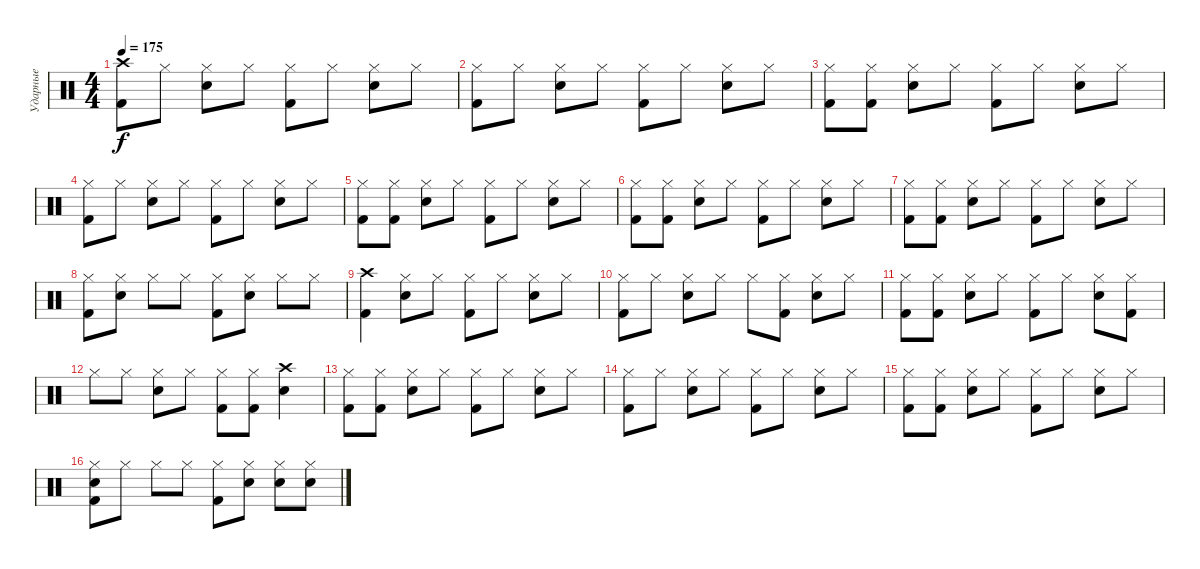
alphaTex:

\track ("Ударные" "Ударные") {instrument percussion}
\staff
\articulation defaults
\ts (4 4)
\tempo 175
\clef neutral
\ks c
("Kick (hit) 2" "Crash high (hit)").8{dy f} "Hi-Hat (closed)".8 ("Snare (hit) 2" "Hi-Hat (closed)").8 "Hi-Hat (closed)".8 ("Kick (hit) 2" "Hi-Hat (closed)").8 "Hi-Hat (closed)".8 ("Snare (hit) 2" "Hi-Hat (closed)").8 "Hi-Hat (closed)".8 |
("Kick (hit) 2" "Hi-Hat (closed)").8 "Hi-Hat (closed)".8 ("Snare (hit) 2" "Hi-Hat (closed)").8 "Hi-Hat (closed)".8 ("Kick (hit) 2" "Hi-Hat (closed)").8 "Hi-Hat (closed)".8 ("Snare (hit) 2" "Hi-Hat (closed)").8 "Hi-Hat (closed)".8 |
("Kick (hit) 2" "Hi-Hat (closed)").8 ("Kick (hit) 2" "Hi-Hat (closed)").8 ("Snare (hit) 2" "Hi-Hat (closed)").8 "Hi-Hat (closed)".8 ("Kick (hit) 2" "Hi-Hat (closed)").8 "Hi-Hat (closed)".8 ("Snare (hit) 2" "Hi-Hat (closed)").8 "Hi-Hat (closed)".8 |
("Kick (hit) 2" "Hi-Hat (closed)").8 "Hi-Hat (closed)".8 ("Snare (hit) 2" "Hi-Hat (closed)").8 "Hi-Hat (closed)".8 ("Kick (hit) 2" "Hi-Hat (closed)").8 "Hi-Hat (closed)".8 ("Snare (hit) 2" "Hi-Hat (closed)").8 "Hi-Hat (closed)".8 |
("Kick (hit) 2" "Hi-Hat (closed)").8 ("Kick (hit) 2" "Hi-Hat (closed)").8 ("Snare (hit) 2" "Hi-Hat (closed)").8 "Hi-Hat (closed)".8 ("Kick (hit) 2" "Hi-Hat (closed)").8 "Hi-Hat (closed)".8 ("Snare (hit) 2" "Hi-Hat (closed)").8 "Hi-Hat (closed)".8 |
("Kick (hit) 2" "Hi-Hat (closed)").8 ("Kick (hit) 2" "Hi-Hat (closed)").8 ("Snare (hit) 2" "Hi-Hat (closed)").8 "Hi-Hat (closed)".8 ("Kick (hit) 2" "Hi-Hat (closed)").8 "Hi-Hat (closed)".8 ("Snare (hit) 2" "Hi-Hat (closed)").8 "Hi-Hat (closed)".8 |
("Kick (hit) 2" "Hi-Hat (closed)").8 ("Kick (hit) 2" "Hi-Hat (closed)").8 ("Snare (hit) 2" "Hi-Hat (closed)").8 "Hi-Hat (closed)".8 ("Kick (hit) 2" "Hi-Hat (closed)").8 "Hi-Hat (closed)".8 ("Snare (hit) 2" "Hi-Hat (closed)").8 "Hi-Hat (closed)".8 |
("Kick (hit) 2" "Hi-Hat (closed)").8 ("Snare (hit) 2" "Hi-Hat (closed)").8 "Hi-Hat (closed)".8 "Hi-Hat (closed)".8 ("Kick (hit) 2" "Hi-Hat (closed)").8 ("Snare (hit) 2" "Hi-Hat (closed)").8 "Hi-Hat (closed)".8 "Hi-Hat (closed)".8 |
("Kick (hit) 2" "Crash high (hit)").4 ("Snare (hit) 2" "Hi-Hat (closed)").8 "Hi-Hat (closed)".8 ("Kick (hit) 2" "Hi-Hat (closed)").8 "Hi-Hat (closed)".8 ("Snare (hit) 2" "Hi-Hat (closed)").8 "Hi-Hat (closed)".8 |
("Kick (hit) 2" "Hi-Hat (closed)").8 "Hi-Hat (closed)".8 ("Snare (hit) 2" "Hi-Hat (closed)").8 "Hi-Hat (closed)".8 "Hi-Hat (closed)".8 ("Kick (hit) 2" "Hi-Hat (closed)").8 ("Snare (hit) 2" "Hi-Hat (closed)").8 "Hi-Hat (closed)".8 |
("Kick (hit) 2" "Hi-Hat (closed)").8 ("Kick (hit) 2" "Hi-Hat (closed)").8 ("Snare (hit) 2" "Hi-Hat (closed)").8 "Hi-Hat (closed)".8 ("Kick (hit) 2" "Hi-Hat (closed)").8 "Hi-Hat (closed)".8 ("Snare (hit) 2" "Hi-Hat (closed)").8 ("Kick (hit) 2" "Hi-Hat (closed)").8 |
"Hi-Hat (closed)".8 "Hi-Hat (closed)".8 ("Snare (hit) 2" "Hi-Hat (closed)").8 "Hi-Hat (closed)".8 ("Kick (hit) 2" "Hi-Hat (closed)").8 ("Kick (hit) 2" "Hi-Hat (closed)").8 ("Snare (hit) 2" "Crash high (hit)").4 |
("Kick (hit) 2" "Hi-Hat (closed)").8 ("Kick (hit) 2" "Hi-Hat (closed)").8 ("Snare (hit) 2" "Hi-Hat (closed)").8 "Hi-Hat (closed)".8 ("Kick (hit) 2" "Hi-Hat (closed)").8 "Hi-Hat (closed)".8 ("Snare (hit) 2" "Hi-Hat (closed)").8 "Hi-Hat (closed)".8 |
("Kick (hit) 2" "Hi-Hat (closed)").8 "Hi-Hat (closed)".8 ("Snare (hit) 2" "Hi-Hat (closed)").8 "Hi-Hat (closed)".8 ("Kick (hit) 2" "Hi-Hat (closed)").8 "Hi-Hat (closed)".8 ("Snare (hit) 2" "Hi-Hat (closed)").8 "Hi-Hat (closed)".8 |
("Kick (hit) 2" "Hi-Hat (closed)").8 ("Kick (hit) 2" "Hi-Hat (closed)").8 ("Snare (hit) 2" "Hi-Hat (closed)").8 "Hi-Hat (closed)".8 ("Kick (hit) 2" "Hi-Hat (closed)").8 "Hi-Hat (closed)".8 ("Snare (hit) 2" "Hi-Hat (closed)").8 "Hi-Hat (closed)".8 |
("Kick (hit) 2" "Electric Snare (hit)" "Hi-Hat (closed)").8 "Hi-Hat (closed)".8 "Hi-Hat (closed)".8 "Hi-Hat (closed)".8 ("Kick (hit) 2" "Hi-Hat (closed)").8 ("Electric Snare (hit)" "Hi-Hat (closed)").8 ("Electric Snare (hit)" "Hi-Hat (closed)").8 ("Electric Snare (hit)" "Hi-Hat (closed)").8
